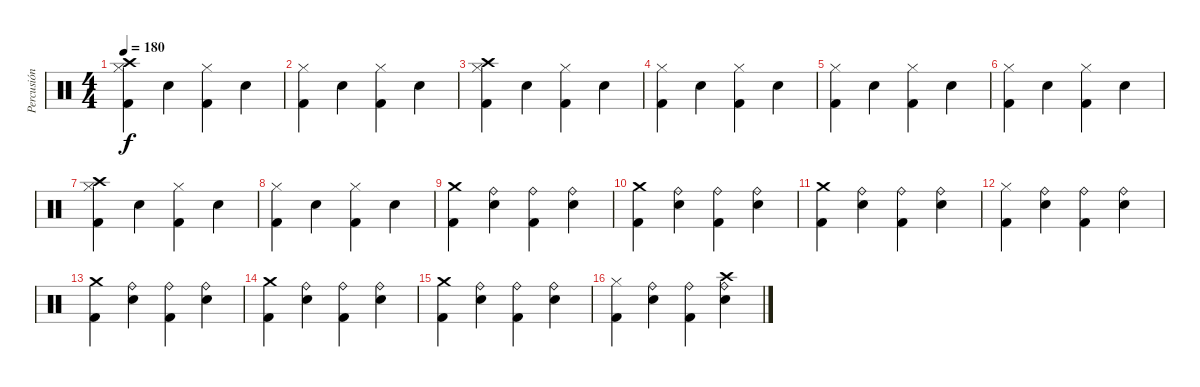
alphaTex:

\track ("Percusión" "Percusión") {instrument percussion}
\staff {score}
\articulation defaults
\ts (4 4)
\tempo 180
\clef neutral
\ks c
("Crash high (hit)" "Hi-Hat (closed)" "Kick (hit) 2").4{dy f} "Electric Snare (hit)".4 ("Hi-Hat (closed)" "Kick (hit) 2").4 "Electric Snare (hit)".4 |
("Hi-Hat (closed)" "Kick (hit) 2").4 "Electric Snare (hit)".4 ("Hi-Hat (closed)" "Kick (hit) 2").4 "Electric Snare (hit)".4 |
("Crash high (hit)" "Hi-Hat (closed)" "Kick (hit) 2").4 "Electric Snare (hit)".4 ("Hi-Hat (closed)" "Kick (hit) 2").4 "Electric Snare (hit)".4 |
("Hi-Hat (closed)" "Kick (hit) 2").4 "Electric Snare (hit)".4 ("Hi-Hat (closed)" "Kick (hit) 2").4 "Electric Snare (hit)".4 |
("Hi-Hat (closed)" "Kick (hit) 2").4 "Electric Snare (hit)".4 ("Hi-Hat (closed)" "Kick (hit) 2").4 "Electric Snare (hit)".4 |
("Hi-Hat (closed)" "Kick (hit) 2").4 "Electric Snare (hit)".4 ("Hi-Hat (closed)" "Kick (hit) 2").4 "Electric Snare (hit)".4 |
("Crash high (hit)" "Hi-Hat (closed)" "Kick (hit) 2").4 "Electric Snare (hit)".4 ("Hi-Hat (closed)" "Kick (hit) 2").4 "Electric Snare (hit)".4 |
("Hi-Hat (closed)" "Kick (hit) 2").4 "Electric Snare (hit)".4 ("Hi-Hat (closed)" "Kick (hit) 2").4 "Electric Snare (hit)".4 |
("Crash medium (hit)" "Kick (hit) 2").4 ("Ride (bell)" "Electric Snare (hit)").4 ("Ride (bell)" "Kick (hit) 2").4 ("Ride (bell)" "Electric Snare (hit)").4 |
("Crash medium (hit)" "Kick (hit) 2").4 ("Ride (bell)" "Electric Snare (hit)").4 ("Ride (bell)" "Kick (hit) 2").4 ("Ride (bell)" "Electric Snare (hit)").4 |
("Crash medium (hit)" "Kick (hit) 2").4 ("Ride (bell)" "Electric Snare (hit)").4 ("Ride (bell)" "Kick (hit) 2").4 ("Ride (bell)" "Electric Snare (hit)").4 |
("Hi-Hat (closed)" "Kick (hit) 2").4 ("Ride (bell)" "Electric Snare (hit)").4 ("Ride (bell)" "Kick (hit) 2").4 ("Ride (bell)" "Electric Snare (hit)").4 |
("Crash medium (hit)" "Kick (hit) 2").4 ("Ride (bell)" "Electric Snare (hit)").4 ("Ride (bell)" "Kick (hit) 2").4 ("Ride (bell)" "Electric Snare (hit)").4 |
("Crash medium (hit)" "Kick (hit) 2").4 ("Ride (bell)" "Electric Snare (hit)").4 ("Ride (bell)" "Kick (hit) 2").4 ("Ride (bell)" "Electric Snare (hit)").4 |
("Crash medium (hit)" "Kick (hit) 2").4 ("Ride (bell)" "Electric Snare (hit)").4 ("Ride (bell)" "Kick (hit) 2").4 ("Ride (bell)" "Electric Snare (hit)").4 |
("Hi-Hat (closed)" "Kick (hit) 2").4 ("Ride (bell)" "Electric Snare (hit)").4 ("Ride (bell)" "Kick (hit) 2").4 ("Crash high (hit)" "Ride (bell)" "Electric Snare (hit)").4
